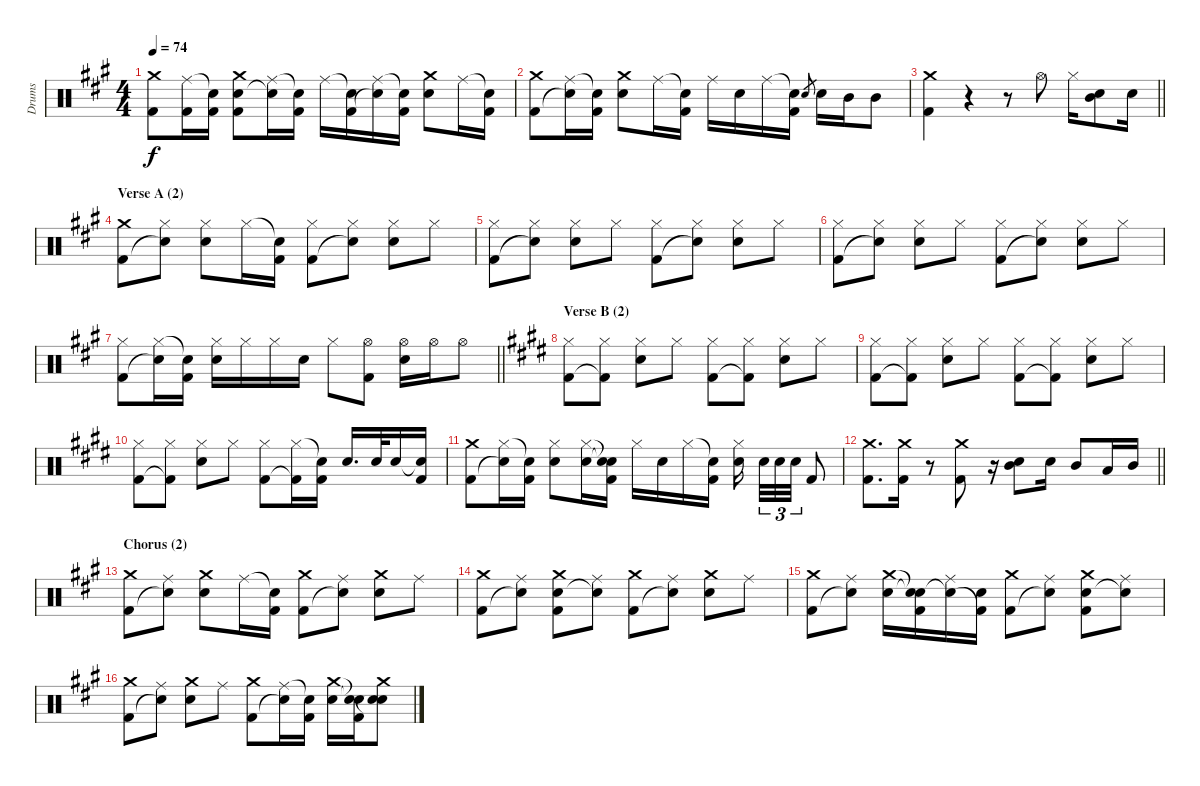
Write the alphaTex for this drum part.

\track ("Drums" "Drums") {instrument percussion}
\staff {score}
\articulation defaults
\ts (4 4)
\tempo 74
\clef neutral
\ks a
("Crash medium (hit)" "Kick (hit) 2").8{dy f} ("Ride (middle)" "Kick (hit) 2").16 ("Snare (hit)"{t} "Kick (hit) 2").16 ("Crash medium (hit)" "Electric Snare (hit)" "Kick (hit) 2").8 ("Ride (middle)" "Snare (hit)"{t}).16 ("Snare (hit)"{t} "Kick (hit) 2").16 "Ride (middle)".16 ("Snare (hit)"{t} "Kick (hit) 2").16 ("Ride (middle)" "Snare (hit)"{t}).16 ("Snare (hit)"{t} "Kick (hit) 2").16 ("Crash medium (hit)" "Electric Snare (hit)").8 "Ride (middle)".16 ("Snare (hit)"{t} "Kick (hit) 2").16 |
("Crash medium (hit)" "Kick (hit) 2").8 ("Ride (middle)" "Snare (hit)"{t}).16 ("Snare (hit)"{t} "Kick (hit) 2").16 ("Crash medium (hit)" "Electric Snare (hit)").8 "Ride (middle)".16 ("Snare (hit)"{t} "Kick (hit) 2").16 "Ride (middle)".16 "Electric Snare (hit)".16 "Ride (middle)".16 ("Snare (hit)"{t} "Kick (hit) 2").16 "Electric Snare (hit)".8{gr} "Electric Snare (hit)".16 "Mid Tom (hit)".16 "Mid Tom (hit)".8 |
\barLineRight lightlight
("Crash medium (hit)" "Kick (hit) 2").4 r.4 r.8 "Hi-Hat (open)".8 "Hi-Hat (closed)".16 ("Electric Snare (hit)" "Mid Tom (hit)").8 "Electric Snare (hit)".16 |
\section ("" "Verse A (2)")
\ks f#minor
("Crash medium (hit)" "Kick (hit) 2").8 ("Hi-Hat (closed)" "Snare (hit)"{t}).8 ("Hi-Hat (closed)" "Electric Snare (hit)").8 "Hi-Hat (closed)".16 ("Snare (hit)"{t} "Kick (hit) 2").16 ("Hi-Hat (closed)" "Kick (hit) 2").8 ("Hi-Hat (closed)" "Snare (hit)"{t}).8 ("Hi-Hat (closed)" "Electric Snare (hit)").8 "Hi-Hat (closed)".8 |
("Hi-Hat (closed)" "Kick (hit) 2").8 ("Hi-Hat (closed)" "Snare (hit)"{t}).8 ("Hi-Hat (closed)" "Electric Snare (hit)").8 "Hi-Hat (closed)".8 ("Hi-Hat (closed)" "Kick (hit) 2").8 ("Hi-Hat (closed)" "Snare (hit)"{t}).8 ("Hi-Hat (closed)" "Electric Snare (hit)").8 "Hi-Hat (closed)".8 |
("Hi-Hat (closed)" "Kick (hit) 2").8 ("Hi-Hat (closed)" "Snare (hit)"{t}).8 ("Hi-Hat (closed)" "Electric Snare (hit)").8 "Hi-Hat (closed)".8 ("Hi-Hat (closed)" "Kick (hit) 2").8 ("Hi-Hat (closed)" "Snare (hit)"{t}).8 ("Hi-Hat (closed)" "Electric Snare (hit)").8 "Hi-Hat (closed)".8 |
\barLineRight lightlight
("Hi-Hat (closed)" "Kick (hit) 2").8 ("Hi-Hat (closed)" "Snare (hit)"{t}).16 ("Snare (hit)"{t} "Kick (hit) 2").16 ("Hi-Hat (closed)" "Electric Snare (hit)").16 "Hi-Hat (closed)".16 "Hi-Hat (closed)".16 "Electric Snare (hit)".16 "Hi-Hat (closed)".8 ("Hi-Hat (open)" "Kick (hit) 2").8 ("Hi-Hat (open)" "Electric Snare (hit)").16 "Hi-Hat (open)".16 "Hi-Hat (open)".8 |
\section ("" "Verse B (2)")
\ks c#minor
("Hi-Hat (closed)" "Kick (hit) 2").8 ("Hi-Hat (closed)" "Kick (hit) 2"{t}).8 ("Hi-Hat (closed)" "Electric Snare (hit)").8 "Hi-Hat (closed)".8 ("Hi-Hat (closed)" "Kick (hit) 2").8 ("Hi-Hat (closed)" "Kick (hit) 2"{t}).8 ("Hi-Hat (closed)" "Electric Snare (hit)").8 "Hi-Hat (closed)".8 |
("Hi-Hat (closed)" "Kick (hit) 2").8 ("Hi-Hat (closed)" "Kick (hit) 2"{t}).8 ("Hi-Hat (closed)" "Electric Snare (hit)").8 "Hi-Hat (closed)".8 ("Hi-Hat (closed)" "Kick (hit) 2").8 ("Hi-Hat (closed)" "Kick (hit) 2"{t}).8 ("Hi-Hat (closed)" "Electric Snare (hit)").8 "Hi-Hat (closed)".8 |
("Hi-Hat (closed)" "Kick (hit) 2").8 ("Hi-Hat (closed)" "Kick (hit) 2"{t}).8 ("Hi-Hat (closed)" "Electric Snare (hit)").8 "Hi-Hat (closed)".8 ("Hi-Hat (closed)" "Kick (hit) 2").8 ("Hi-Hat (closed)" "Kick (hit) 2"{t}).16 ("Snare (hit)"{t} "Kick (hit) 2").16 "Electric Snare (hit)".16{d} "Electric Snare (hit)".32 "Electric Snare (hit)".16 ("Snare (hit)"{t} "Kick (hit) 2").16 |
("Crash medium (hit)" "Kick (hit) 2").8 ("Hi-Hat (closed)" "Snare (hit)"{t}).16 ("Snare (hit)"{t} "Kick (hit) 2").16 ("Hi-Hat (closed)" "Electric Snare (hit)").8 ("Hi-Hat (closed)" "Electric Snare (hit)").16 ("Snare (hit)"{t} "Snare (hit)"{t} "Kick (hit) 2").16 "Hi-Hat (closed)".16 "Electric Snare (hit)".16 "Hi-Hat (closed)".16 ("Snare (hit)"{t} "Kick (hit) 2").16 ("Hi-Hat (closed)" "Electric Snare (hit)").16 "Electric Snare (hit)".32{tu (3 2)} "Electric Snare (hit)".32{tu (3 2)} "Electric Snare (hit)".32{tu (3 2)} "Kick (hit) 2".8 |
\barLineRight lightlight
("Crash medium (hit)" "Kick (hit) 2").8{d} ("Crash medium (hit)" "Kick (hit) 2").16 r.8 ("Crash medium (hit)" "Kick (hit) 2").8 r.16 ("Electric Snare (hit)" "Mid Tom (hit)").8 "Electric Snare (hit)".16 "Mid Tom (hit)".8 "Low Floor Tom (hit)".16 "Mid Tom (hit)".16 |
\section ("" "Chorus (2)")
\ks a
("Crash medium (hit)" "Kick (hit) 2").8 ("Ride (middle)" "Snare (hit)"{t}).8 ("Crash medium (hit)" "Electric Snare (hit)").8 "Ride (middle)".16 ("Snare (hit)"{t} "Kick (hit) 2").16 ("Crash medium (hit)" "Kick (hit) 2").8 ("Ride (middle)" "Snare (hit)"{t}).8 ("Crash medium (hit)" "Electric Snare (hit)").8 "Ride (middle)".8 |
("Crash medium (hit)" "Kick (hit) 2").8 ("Ride (middle)" "Snare (hit)"{t}).8 ("Crash medium (hit)" "Electric Snare (hit)" "Kick (hit) 2").8 ("Ride (middle)" "Snare (hit)"{t}).8 ("Crash medium (hit)" "Kick (hit) 2").8 ("Ride (middle)" "Snare (hit)"{t}).8 ("Crash medium (hit)" "Electric Snare (hit)").8 "Ride (middle)".8 |
("Crash medium (hit)" "Kick (hit) 2").8 ("Ride (middle)" "Snare (hit)"{t}).8 ("Crash medium (hit)" "Electric Snare (hit)").16 ("Snare (hit)"{t} "Snare (hit)"{t} "Kick (hit) 2").16 ("Ride (middle)" "Snare (hit)"{t}).16 ("Electric Snare (hit)" "Kick (hit) 2"{t}).16 ("Crash medium (hit)" "Kick (hit) 2").8 ("Ride (middle)" "Snare (hit)"{t}).8 ("Crash medium (hit)" "Electric Snare (hit)" "Kick (hit) 2").8 ("Ride (middle)" "Snare (hit)"{t}).8 |
("Crash medium (hit)" "Kick (hit) 2").8 ("Ride (middle)" "Snare (hit)"{t}).8 ("Crash medium (hit)" "Electric Snare (hit)").8 "Ride (middle)".8 ("Crash medium (hit)" "Kick (hit) 2").8 ("Ride (middle)" "Snare (hit)"{t}).16 ("Snare (hit)"{t} "Kick (hit) 2").16 ("Crash medium (hit)" "Electric Snare (hit)").16 ("Snare (hit)"{t} "Snare (hit)"{t} "Kick (hit) 2").16 ("Crash medium (hit)" "Electric Snare (hit)" "Snare (hit)"{t}).8
